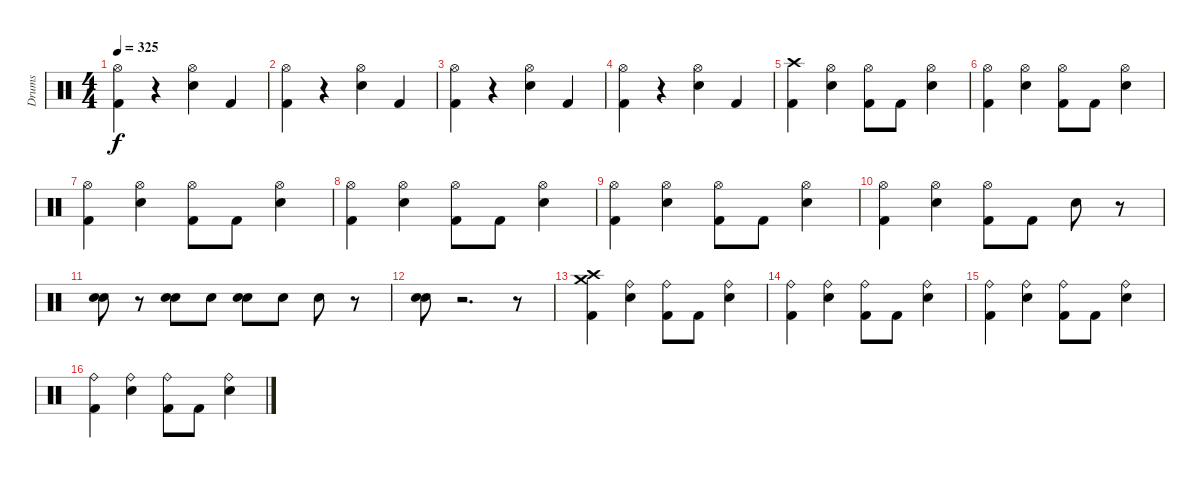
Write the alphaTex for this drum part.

\track ("Drums" "Drums") {instrument percussion}
\staff {score}
\articulation defaults
\ts (4 4)
\tempo 325
\clef neutral
\ks c
("Kick (hit) 2" "Hi-Hat (open)").4{dy f} r.4 ("Hi-Hat (open)" "Electric Snare (hit)").4 "Kick (hit) 2".4 |
("Kick (hit) 2" "Hi-Hat (open)").4 r.4 ("Hi-Hat (open)" "Electric Snare (hit)").4 "Kick (hit) 2".4 |
("Kick (hit) 2" "Hi-Hat (open)").4 r.4 ("Hi-Hat (open)" "Electric Snare (hit)").4 "Kick (hit) 2".4 |
("Kick (hit) 2" "Hi-Hat (open)").4 r.4 ("Hi-Hat (open)" "Electric Snare (hit)").4 "Kick (hit) 2".4 |
("Kick (hit) 2" "Crash high (hit)").4 ("Electric Snare (hit)" "Hi-Hat (open)").4 ("Kick (hit) 2" "Hi-Hat (open)").8 "Kick (hit) 2".8 ("Electric Snare (hit)" "Hi-Hat (open)").4 |
("Kick (hit) 2" "Hi-Hat (open)").4 ("Electric Snare (hit)" "Hi-Hat (open)").4 ("Kick (hit) 2" "Hi-Hat (open)").8 "Kick (hit) 2".8 ("Electric Snare (hit)" "Hi-Hat (open)").4 |
("Hi-Hat (open)" "Kick (hit) 2").4 ("Electric Snare (hit)" "Hi-Hat (open)").4 ("Kick (hit) 2" "Hi-Hat (open)").8 "Kick (hit) 2".8 ("Electric Snare (hit)" "Hi-Hat (open)").4 |
("Kick (hit) 2" "Hi-Hat (open)").4 ("Electric Snare (hit)" "Hi-Hat (open)").4 ("Kick (hit) 2" "Hi-Hat (open)").8 "Kick (hit) 2".8 ("Electric Snare (hit)" "Hi-Hat (open)").4 |
("Kick (hit) 2" "Hi-Hat (open)").4 ("Electric Snare (hit)" "Hi-Hat (open)").4 ("Kick (hit) 2" "Hi-Hat (open)").8 "Kick (hit) 2".8 ("Electric Snare (hit)" "Hi-Hat (open)").4 |
("Kick (hit) 2" "Hi-Hat (open)").4 ("Electric Snare (hit)" "Hi-Hat (open)").4 ("Kick (hit) 2" "Hi-Hat (open)").8 "Kick (hit) 2".8 "Electric Snare (hit)".8 r.8 |
("Electric Snare (hit)" "Electric Snare (hit)").8 r.8 ("Electric Snare (hit)" "Electric Snare (hit)").8 "Electric Snare (hit)".8 ("Electric Snare (hit)" "Electric Snare (hit)").8 "Electric Snare (hit)".8 "Electric Snare (hit)".8 r.8 |
("Electric Snare (hit)" "Electric Snare (hit)").8 r.2{d} r.8 |
("Kick (hit) 2" "Crash high (hit)" "Crash medium (hit)").4 ("Electric Snare (hit)" "Ride (bell)").4 ("Kick (hit) 2" "Ride (bell)").8 "Kick (hit) 2".8 ("Electric Snare (hit)" "Ride (bell)").4 |
("Kick (hit) 2" "Ride (bell)").4 ("Electric Snare (hit)" "Ride (bell)").4 ("Kick (hit) 2" "Ride (bell)").8 "Kick (hit) 2".8 ("Electric Snare (hit)" "Ride (bell)").4 |
("Kick (hit) 2" "Ride (bell)").4 ("Electric Snare (hit)" "Ride (bell)").4 ("Kick (hit) 2" "Ride (bell)").8 "Kick (hit) 2".8 ("Electric Snare (hit)" "Ride (bell)").4 |
("Kick (hit) 2" "Ride (bell)").4 ("Electric Snare (hit)" "Ride (bell)").4 ("Kick (hit) 2" "Ride (bell)").8 "Kick (hit) 2".8 ("Electric Snare (hit)" "Ride (bell)").4
